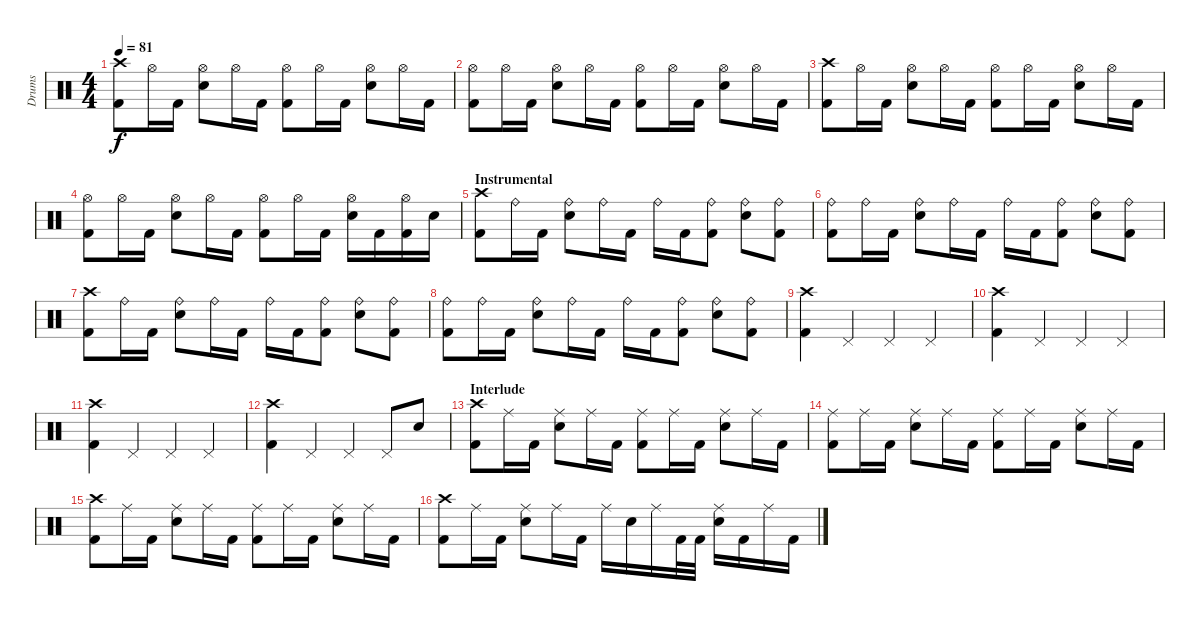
\track ("Drums" "Drums") {instrument percussion}
\staff {score}
\articulation defaults
\ts (4 4)
\tempo 81
\clef neutral
\ks c
("Crash high (hit)" "Kick (hit) 2").8{dy f} "Hi-Hat (open)".16 "Kick (hit) 2".16 ("Hi-Hat (open)" "Snare (hit) 2").8 "Hi-Hat (open)".16 "Kick (hit) 2".16 ("Hi-Hat (open)" "Kick (hit) 2").8 "Hi-Hat (open)".16 "Kick (hit) 2".16 ("Hi-Hat (open)" "Snare (hit) 2").8 "Hi-Hat (open)".16 "Kick (hit) 2".16 |
("Hi-Hat (open)" "Kick (hit) 2").8 "Hi-Hat (open)".16 "Kick (hit) 2".16 ("Hi-Hat (open)" "Snare (hit) 2").8 "Hi-Hat (open)".16 "Kick (hit) 2".16 ("Hi-Hat (open)" "Kick (hit) 2").8 "Hi-Hat (open)".16 "Kick (hit) 2".16 ("Hi-Hat (open)" "Snare (hit) 2").8 "Hi-Hat (open)".16 "Kick (hit) 2".16 |
("Crash high (hit)" "Kick (hit) 2").8 "Hi-Hat (open)".16 "Kick (hit) 2".16 ("Hi-Hat (open)" "Snare (hit) 2").8 "Hi-Hat (open)".16 "Kick (hit) 2".16 ("Hi-Hat (open)" "Kick (hit) 2").8 "Hi-Hat (open)".16 "Kick (hit) 2".16 ("Hi-Hat (open)" "Snare (hit) 2").8 "Hi-Hat (open)".16 "Kick (hit) 2".16 |
("Hi-Hat (open)" "Kick (hit) 2").8 "Hi-Hat (open)".16 "Kick (hit) 2".16 ("Hi-Hat (open)" "Snare (hit) 2").8 "Hi-Hat (open)".16 "Kick (hit) 2".16 ("Hi-Hat (open)" "Kick (hit) 2").8 "Hi-Hat (open)".16 "Kick (hit) 2".16 ("Hi-Hat (open)" "Snare (hit) 2").16 "Kick (hit) 2".16 ("Hi-Hat (open)" "Kick (hit) 2").16 "Snare (hit) 2".16 |
\section ("" "Instrumental")
("Crash high (hit)" "Kick (hit) 2").8 "Ride (bell)".16 "Kick (hit) 2".16 ("Ride (bell)" "Snare (hit) 2").8 "Ride (bell)".16 "Kick (hit) 2".16 "Ride (bell)".16 "Kick (hit) 2".16 ("Ride (bell)" "Kick (hit) 2").8 ("Ride (bell)" "Snare (hit) 2").8 ("Ride (bell)" "Kick (hit) 2").8 |
("Ride (bell)" "Kick (hit) 2").8 "Ride (bell)".16 "Kick (hit) 2".16 ("Ride (bell)" "Snare (hit) 2").8 "Ride (bell)".16 "Kick (hit) 2".16 "Ride (bell)".16 "Kick (hit) 2".16 ("Ride (bell)" "Kick (hit) 2").8 ("Ride (bell)" "Snare (hit) 2").8 ("Ride (bell)" "Kick (hit) 2").8 |
("Crash high (hit)" "Kick (hit) 2").8 "Ride (bell)".16 "Kick (hit) 2".16 ("Ride (bell)" "Snare (hit) 2").8 "Ride (bell)".16 "Kick (hit) 2".16 "Ride (bell)".16 "Kick (hit) 2".16 ("Ride (bell)" "Kick (hit) 2").8 ("Ride (bell)" "Snare (hit) 2").8 ("Ride (bell)" "Kick (hit) 2").8 |
("Ride (bell)" "Kick (hit) 2").8 "Ride (bell)".16 "Kick (hit) 2".16 ("Ride (bell)" "Snare (hit) 2").8 "Ride (bell)".16 "Kick (hit) 2".16 "Ride (bell)".16 "Kick (hit) 2".16 ("Ride (bell)" "Kick (hit) 2").8 ("Ride (bell)" "Snare (hit) 2").8 ("Ride (bell)" "Kick (hit) 2").8 |
("Crash high (hit)" "Kick (hit) 2").4 "Pedal Hi-Hat (hit)".4 "Pedal Hi-Hat (hit)".4 "Pedal Hi-Hat (hit)".4 |
("Crash high (hit)" "Kick (hit) 2").4 "Pedal Hi-Hat (hit)".4 "Pedal Hi-Hat (hit)".4 "Pedal Hi-Hat (hit)".4 |
("Crash high (hit)" "Kick (hit) 2").4 "Pedal Hi-Hat (hit)".4 "Pedal Hi-Hat (hit)".4 "Pedal Hi-Hat (hit)".4 |
("Crash high (hit)" "Kick (hit) 2").4 "Pedal Hi-Hat (hit)".4 "Pedal Hi-Hat (hit)".4 "Pedal Hi-Hat (hit)".8 "Snare (hit) 2".8 |
\section ("" "Interlude")
("Crash high (hit)" "Kick (hit) 2").8 "Ride (middle)".16 "Kick (hit) 2".16 ("Ride (middle)" "Snare (hit) 2").8 "Ride (middle)".16 "Kick (hit) 2".16 ("Ride (middle)" "Kick (hit) 2").8 "Ride (middle)".16 "Kick (hit) 2".16 ("Ride (middle)" "Snare (hit) 2").8 "Ride (middle)".16 "Kick (hit) 2".16 |
("Ride (middle)" "Kick (hit) 2").8 "Ride (middle)".16 "Kick (hit) 2".16 ("Ride (middle)" "Snare (hit) 2").8 "Ride (middle)".16 "Kick (hit) 2".16 ("Ride (middle)" "Kick (hit) 2").8 "Ride (middle)".16 "Kick (hit) 2".16 ("Ride (middle)" "Snare (hit) 2").8 "Ride (middle)".16 "Kick (hit) 2".16 |
("Crash high (hit)" "Kick (hit) 2").8 "Ride (middle)".16 "Kick (hit) 2".16 ("Ride (middle)" "Snare (hit) 2").8 "Ride (middle)".16 "Kick (hit) 2".16 ("Ride (middle)" "Kick (hit) 2").8 "Ride (middle)".16 "Kick (hit) 2".16 ("Ride (middle)" "Snare (hit) 2").8 "Ride (middle)".16 "Kick (hit) 2".16 |
("Crash high (hit)" "Kick (hit) 2").8 "Ride (middle)".16 "Kick (hit) 2".16 ("Ride (middle)" "Snare (hit) 2").8 "Ride (middle)".16 "Kick (hit) 2".16 "Ride (middle)".16 "Snare (hit) 2".16 "Ride (middle)".16 "Kick (hit) 2".32 "Kick (hit) 2".32 ("Ride (middle)" "Snare (hit) 2").16 "Kick (hit) 2".16 "Ride (middle)".16 "Kick (hit) 2".16
